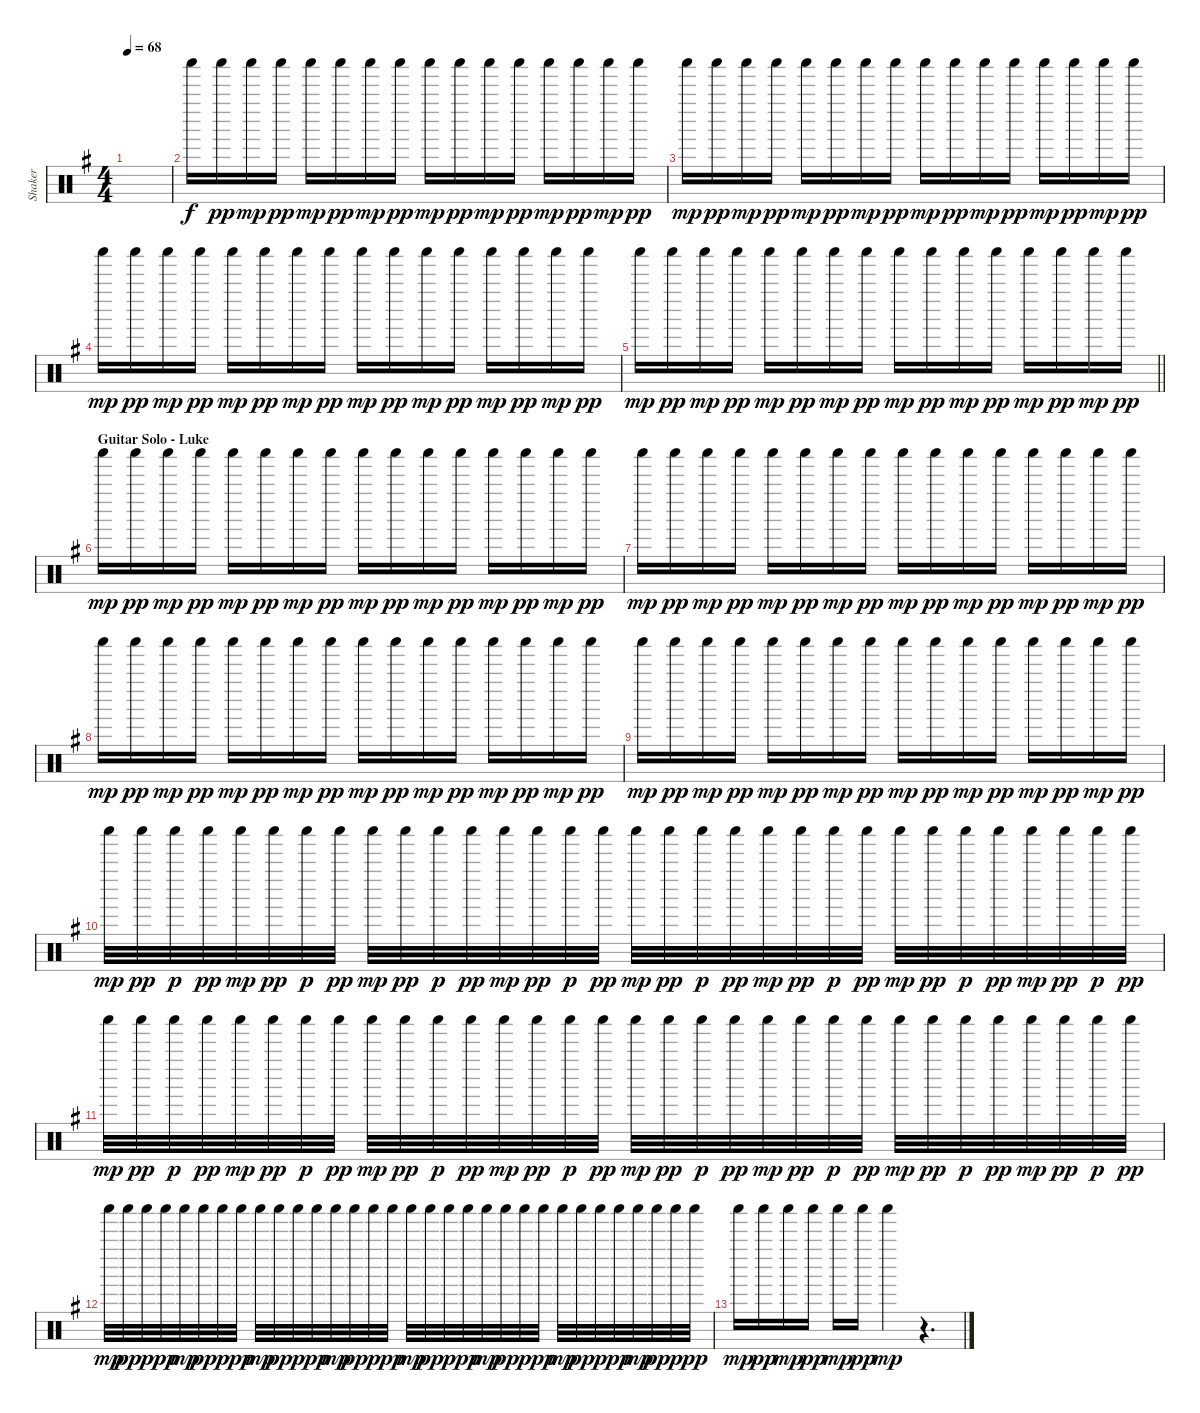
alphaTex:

\track ("Shaker" "Shaker") {instrument percussion}
\staff {score}
\articulation defaults
\ts (4 4)
\tempo 68
\clef neutral
\ks g
|
"Shaker (hit)".16 "Shaker (hit)".16{dy pp} "Shaker (hit)".16{dy mp} "Shaker (hit)".16{dy pp} "Shaker (hit)".16{dy mp} "Shaker (hit)".16{dy pp} "Shaker (hit)".16{dy mp} "Shaker (hit)".16{dy pp} "Shaker (hit)".16{dy mp} "Shaker (hit)".16{dy pp} "Shaker (hit)".16{dy mp} "Shaker (hit)".16{dy pp} "Shaker (hit)".16{dy mp} "Shaker (hit)".16{dy pp} "Shaker (hit)".16{dy mp} "Shaker (hit)".16{dy pp} |
"Shaker (hit)".16{dy mp} "Shaker (hit)".16{dy pp} "Shaker (hit)".16{dy mp} "Shaker (hit)".16{dy pp} "Shaker (hit)".16{dy mp} "Shaker (hit)".16{dy pp} "Shaker (hit)".16{dy mp} "Shaker (hit)".16{dy pp} "Shaker (hit)".16{dy mp} "Shaker (hit)".16{dy pp} "Shaker (hit)".16{dy mp} "Shaker (hit)".16{dy pp} "Shaker (hit)".16{dy mp} "Shaker (hit)".16{dy pp} "Shaker (hit)".16{dy mp} "Shaker (hit)".16{dy pp} |
"Shaker (hit)".16{dy mp} "Shaker (hit)".16{dy pp} "Shaker (hit)".16{dy mp} "Shaker (hit)".16{dy pp} "Shaker (hit)".16{dy mp} "Shaker (hit)".16{dy pp} "Shaker (hit)".16{dy mp} "Shaker (hit)".16{dy pp} "Shaker (hit)".16{dy mp} "Shaker (hit)".16{dy pp} "Shaker (hit)".16{dy mp} "Shaker (hit)".16{dy pp} "Shaker (hit)".16{dy mp} "Shaker (hit)".16{dy pp} "Shaker (hit)".16{dy mp} "Shaker (hit)".16{dy pp} |
\barLineRight lightlight "Shaker (hit)".16{dy mp} "Shaker (hit)".16{dy pp} "Shaker (hit)".16{dy mp} "Shaker (hit)".16{dy pp} "Shaker (hit)".16{dy mp} "Shaker (hit)".16{dy pp} "Shaker (hit)".16{dy mp} "Shaker (hit)".16{dy pp} "Shaker (hit)".16{dy mp} "Shaker (hit)".16{dy pp} "Shaker (hit)".16{dy mp} "Shaker (hit)".16{dy pp} "Shaker (hit)".16{dy mp} "Shaker (hit)".16{dy pp} "Shaker (hit)".16{dy mp} "Shaker (hit)".16{dy pp}
|
\section ("" "Guitar Solo - Luke")
"Shaker (hit)".16{dy mp} "Shaker (hit)".16{dy pp} "Shaker (hit)".16{dy mp} "Shaker (hit)".16{dy pp} "Shaker (hit)".16{dy mp} "Shaker (hit)".16{dy pp} "Shaker (hit)".16{dy mp} "Shaker (hit)".16{dy pp} "Shaker (hit)".16{dy mp} "Shaker (hit)".16{dy pp} "Shaker (hit)".16{dy mp} "Shaker (hit)".16{dy pp} "Shaker (hit)".16{dy mp} "Shaker (hit)".16{dy pp} "Shaker (hit)".16{dy mp} "Shaker (hit)".16{dy pp} |
"Shaker (hit)".16{dy mp} "Shaker (hit)".16{dy pp} "Shaker (hit)".16{dy mp} "Shaker (hit)".16{dy pp} "Shaker (hit)".16{dy mp} "Shaker (hit)".16{dy pp} "Shaker (hit)".16{dy mp} "Shaker (hit)".16{dy pp} "Shaker (hit)".16{dy mp} "Shaker (hit)".16{dy pp} "Shaker (hit)".16{dy mp} "Shaker (hit)".16{dy pp} "Shaker (hit)".16{dy mp} "Shaker (hit)".16{dy pp} "Shaker (hit)".16{dy mp} "Shaker (hit)".16{dy pp} |
"Shaker (hit)".16{dy mp} "Shaker (hit)".16{dy pp} "Shaker (hit)".16{dy mp} "Shaker (hit)".16{dy pp} "Shaker (hit)".16{dy mp} "Shaker (hit)".16{dy pp} "Shaker (hit)".16{dy mp} "Shaker (hit)".16{dy pp} "Shaker (hit)".16{dy mp} "Shaker (hit)".16{dy pp} "Shaker (hit)".16{dy mp} "Shaker (hit)".16{dy pp} "Shaker (hit)".16{dy mp} "Shaker (hit)".16{dy pp} "Shaker (hit)".16{dy mp} "Shaker (hit)".16{dy pp} |
"Shaker (hit)".16{dy mp} "Shaker (hit)".16{dy pp} "Shaker (hit)".16{dy mp} "Shaker (hit)".16{dy pp} "Shaker (hit)".16{dy mp} "Shaker (hit)".16{dy pp} "Shaker (hit)".16{dy mp} "Shaker (hit)".16{dy pp} "Shaker (hit)".16{dy mp} "Shaker (hit)".16{dy pp} "Shaker (hit)".16{dy mp} "Shaker (hit)".16{dy pp} "Shaker (hit)".16{dy mp} "Shaker (hit)".16{dy pp} "Shaker (hit)".16{dy mp} "Shaker (hit)".16{dy pp} |
"Shaker (hit)".32{dy mp} "Shaker (hit)".32{dy pp} "Shaker (hit)".32{dy p} "Shaker (hit)".32{dy pp} "Shaker (hit)".32{dy mp} "Shaker (hit)".32{dy pp} "Shaker (hit)".32{dy p} "Shaker (hit)".32{dy pp} "Shaker (hit)".32{dy mp} "Shaker (hit)".32{dy pp} "Shaker (hit)".32{dy p} "Shaker (hit)".32{dy pp} "Shaker (hit)".32{dy mp} "Shaker (hit)".32{dy pp} "Shaker (hit)".32{dy p} "Shaker (hit)".32{dy pp} "Shaker (hit)".32{dy mp} "Shaker (hit)".32{dy pp} "Shaker (hit)".32{dy p} "Shaker (hit)".32{dy pp} "Shaker (hit)".32{dy mp} "Shaker (hit)".32{dy pp} "Shaker (hit)".32{dy p} "Shaker (hit)".32{dy pp} "Shaker (hit)".32{dy mp} "Shaker (hit)".32{dy pp} "Shaker (hit)".32{dy p} "Shaker (hit)".32{dy pp} "Shaker (hit)".32{dy mp} "Shaker (hit)".32{dy pp} "Shaker (hit)".32{dy p} "Shaker (hit)".32{dy pp} |
"Shaker (hit)".32{dy mp} "Shaker (hit)".32{dy pp} "Shaker (hit)".32{dy p} "Shaker (hit)".32{dy pp} "Shaker (hit)".32{dy mp} "Shaker (hit)".32{dy pp} "Shaker (hit)".32{dy p} "Shaker (hit)".32{dy pp} "Shaker (hit)".32{dy mp} "Shaker (hit)".32{dy pp} "Shaker (hit)".32{dy p} "Shaker (hit)".32{dy pp} "Shaker (hit)".32{dy mp} "Shaker (hit)".32{dy pp} "Shaker (hit)".32{dy p} "Shaker (hit)".32{dy pp} "Shaker (hit)".32{dy mp} "Shaker (hit)".32{dy pp} "Shaker (hit)".32{dy p} "Shaker (hit)".32{dy pp} "Shaker (hit)".32{dy mp} "Shaker (hit)".32{dy pp} "Shaker (hit)".32{dy p} "Shaker (hit)".32{dy pp} "Shaker (hit)".32{dy mp} "Shaker (hit)".32{dy pp} "Shaker (hit)".32{dy p} "Shaker (hit)".32{dy pp} "Shaker (hit)".32{dy mp} "Shaker (hit)".32{dy pp} "Shaker (hit)".32{dy p} "Shaker (hit)".32{dy pp} |
"Shaker (hit)".32{dy mp} "Shaker (hit)".32{dy pp} "Shaker (hit)".32{dy p} "Shaker (hit)".32{dy pp} "Shaker (hit)".32{dy mp} "Shaker (hit)".32{dy pp} "Shaker (hit)".32{dy p} "Shaker (hit)".32{dy pp} "Shaker (hit)".32{dy mp} "Shaker (hit)".32{dy pp} "Shaker (hit)".32{dy p} "Shaker (hit)".32{dy pp} "Shaker (hit)".32{dy mp} "Shaker (hit)".32{dy pp} "Shaker (hit)".32{dy p} "Shaker (hit)".32{dy pp} "Shaker (hit)".32{dy mp} "Shaker (hit)".32{dy pp} "Shaker (hit)".32{dy p} "Shaker (hit)".32{dy pp} "Shaker (hit)".32{dy mp} "Shaker (hit)".32{dy pp} "Shaker (hit)".32{dy p} "Shaker (hit)".32{dy pp} "Shaker (hit)".32{dy mp} "Shaker (hit)".32{dy pp} "Shaker (hit)".32{dy p} "Shaker (hit)".32{dy pp} "Shaker (hit)".32{dy mp} "Shaker (hit)".32{dy pp} "Shaker (hit)".32{dy p} "Shaker (hit)".32{dy pp} |
"Shaker (hit)".16{dy mp} "Shaker (hit)".16{dy pp} "Shaker (hit)".16{dy mp} "Shaker (hit)".16{dy pp} "Shaker (hit)".16{dy mp} "Shaker (hit)".16{dy pp} "Shaker (hit)".4{dy mp} r.4{d}
